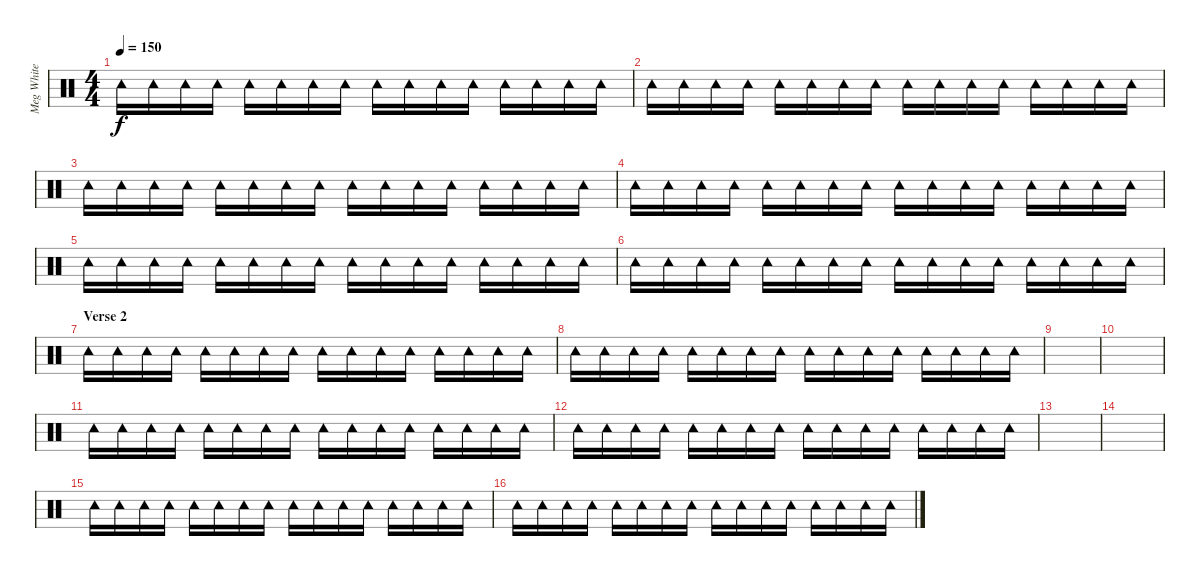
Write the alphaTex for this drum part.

\track ("Meg White - Tambourine" "Meg White ") {instrument percussion}
\staff {score}
\articulation defaults
\ts (4 4)
\tempo 150
\clef neutral
\ks c "Tambourine (hit)".16{dy f} "Tambourine (hit)".16 "Tambourine (hit)".16 "Tambourine (hit)".16 "Tambourine (hit)".16 "Tambourine (hit)".16 "Tambourine (hit)".16 "Tambourine (hit)".16 "Tambourine (hit)".16 "Tambourine (hit)".16 "Tambourine (hit)".16 "Tambourine (hit)".16 "Tambourine (hit)".16 "Tambourine (hit)".16 "Tambourine (hit)".16 "Tambourine (hit)".16
|
"Tambourine (hit)".16 "Tambourine (hit)".16 "Tambourine (hit)".16 "Tambourine (hit)".16 "Tambourine (hit)".16 "Tambourine (hit)".16 "Tambourine (hit)".16 "Tambourine (hit)".16 "Tambourine (hit)".16 "Tambourine (hit)".16 "Tambourine (hit)".16 "Tambourine (hit)".16 "Tambourine (hit)".16 "Tambourine (hit)".16 "Tambourine (hit)".16 "Tambourine (hit)".16 |
"Tambourine (hit)".16 "Tambourine (hit)".16 "Tambourine (hit)".16 "Tambourine (hit)".16 "Tambourine (hit)".16 "Tambourine (hit)".16 "Tambourine (hit)".16 "Tambourine (hit)".16 "Tambourine (hit)".16 "Tambourine (hit)".16 "Tambourine (hit)".16 "Tambourine (hit)".16 "Tambourine (hit)".16 "Tambourine (hit)".16 "Tambourine (hit)".16 "Tambourine (hit)".16 |
"Tambourine (hit)".16 "Tambourine (hit)".16 "Tambourine (hit)".16 "Tambourine (hit)".16 "Tambourine (hit)".16 "Tambourine (hit)".16 "Tambourine (hit)".16 "Tambourine (hit)".16 "Tambourine (hit)".16 "Tambourine (hit)".16 "Tambourine (hit)".16 "Tambourine (hit)".16 "Tambourine (hit)".16 "Tambourine (hit)".16 "Tambourine (hit)".16 "Tambourine (hit)".16 |
"Tambourine (hit)".16 "Tambourine (hit)".16 "Tambourine (hit)".16 "Tambourine (hit)".16 "Tambourine (hit)".16 "Tambourine (hit)".16 "Tambourine (hit)".16 "Tambourine (hit)".16 "Tambourine (hit)".16 "Tambourine (hit)".16 "Tambourine (hit)".16 "Tambourine (hit)".16 "Tambourine (hit)".16 "Tambourine (hit)".16 "Tambourine (hit)".16 "Tambourine (hit)".16 |
"Tambourine (hit)".16 "Tambourine (hit)".16 "Tambourine (hit)".16 "Tambourine (hit)".16 "Tambourine (hit)".16 "Tambourine (hit)".16 "Tambourine (hit)".16 "Tambourine (hit)".16 "Tambourine (hit)".16 "Tambourine (hit)".16 "Tambourine (hit)".16 "Tambourine (hit)".16 "Tambourine (hit)".16 "Tambourine (hit)".16 "Tambourine (hit)".16 "Tambourine (hit)".16 |
\section ("" "Verse 2")
"Tambourine (hit)".16 "Tambourine (hit)".16 "Tambourine (hit)".16 "Tambourine (hit)".16 "Tambourine (hit)".16 "Tambourine (hit)".16 "Tambourine (hit)".16 "Tambourine (hit)".16 "Tambourine (hit)".16 "Tambourine (hit)".16 "Tambourine (hit)".16 "Tambourine (hit)".16 "Tambourine (hit)".16 "Tambourine (hit)".16 "Tambourine (hit)".16 "Tambourine (hit)".16 |
"Tambourine (hit)".16 "Tambourine (hit)".16 "Tambourine (hit)".16 "Tambourine (hit)".16 "Tambourine (hit)".16 "Tambourine (hit)".16 "Tambourine (hit)".16 "Tambourine (hit)".16 "Tambourine (hit)".16 "Tambourine (hit)".16 "Tambourine (hit)".16 "Tambourine (hit)".16 "Tambourine (hit)".16 "Tambourine (hit)".16 "Tambourine (hit)".16 "Tambourine (hit)".16 |
|
|
"Tambourine (hit)".16 "Tambourine (hit)".16 "Tambourine (hit)".16 "Tambourine (hit)".16 "Tambourine (hit)".16 "Tambourine (hit)".16 "Tambourine (hit)".16 "Tambourine (hit)".16 "Tambourine (hit)".16 "Tambourine (hit)".16 "Tambourine (hit)".16 "Tambourine (hit)".16 "Tambourine (hit)".16 "Tambourine (hit)".16 "Tambourine (hit)".16 "Tambourine (hit)".16 |
"Tambourine (hit)".16 "Tambourine (hit)".16 "Tambourine (hit)".16 "Tambourine (hit)".16 "Tambourine (hit)".16 "Tambourine (hit)".16 "Tambourine (hit)".16 "Tambourine (hit)".16 "Tambourine (hit)".16 "Tambourine (hit)".16 "Tambourine (hit)".16 "Tambourine (hit)".16 "Tambourine (hit)".16 "Tambourine (hit)".16 "Tambourine (hit)".16 "Tambourine (hit)".16 |
|
|
"Tambourine (hit)".16 "Tambourine (hit)".16 "Tambourine (hit)".16 "Tambourine (hit)".16 "Tambourine (hit)".16 "Tambourine (hit)".16 "Tambourine (hit)".16 "Tambourine (hit)".16 "Tambourine (hit)".16 "Tambourine (hit)".16 "Tambourine (hit)".16 "Tambourine (hit)".16 "Tambourine (hit)".16 "Tambourine (hit)".16 "Tambourine (hit)".16 "Tambourine (hit)".16 |
"Tambourine (hit)".16 "Tambourine (hit)".16 "Tambourine (hit)".16 "Tambourine (hit)".16 "Tambourine (hit)".16 "Tambourine (hit)".16 "Tambourine (hit)".16 "Tambourine (hit)".16 "Tambourine (hit)".16 "Tambourine (hit)".16 "Tambourine (hit)".16 "Tambourine (hit)".16 "Tambourine (hit)".16 "Tambourine (hit)".16 "Tambourine (hit)".16 "Tambourine (hit)".16
